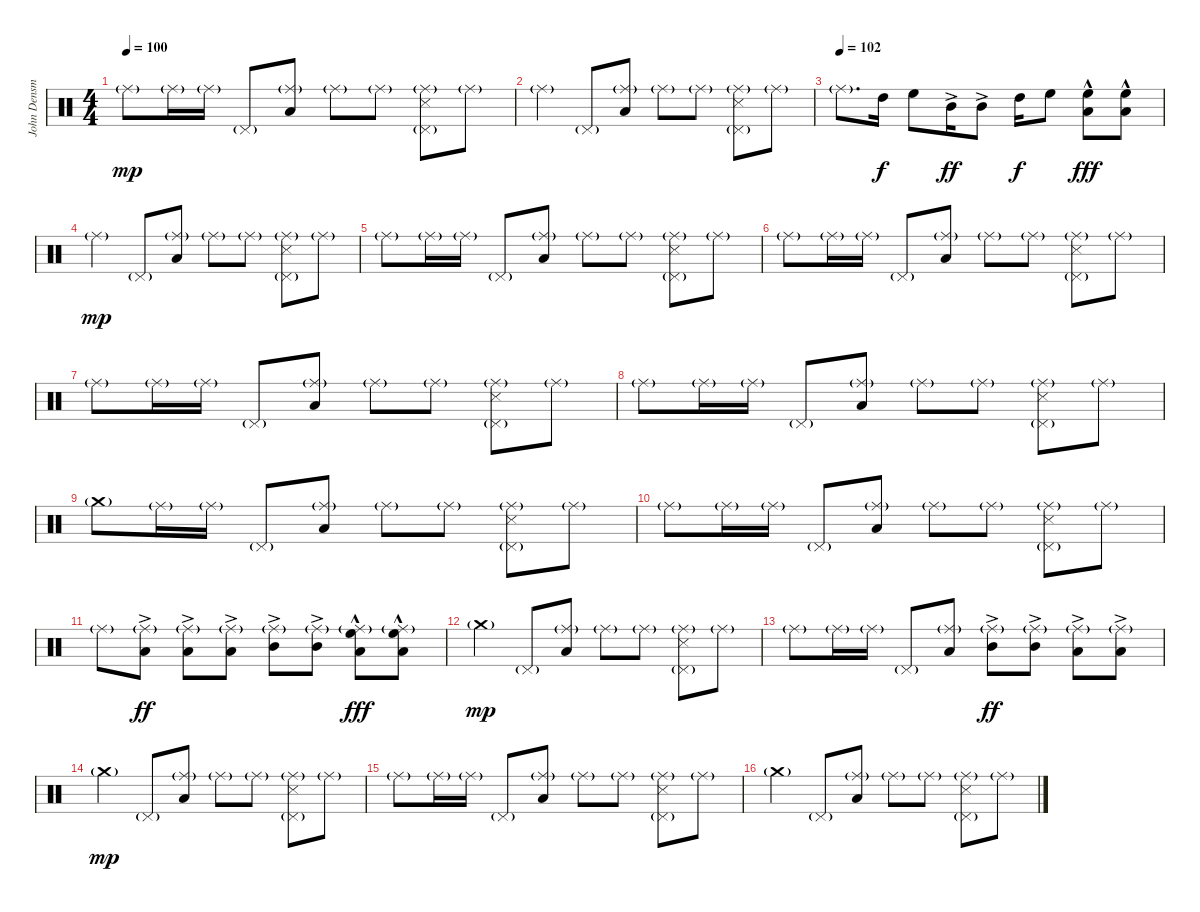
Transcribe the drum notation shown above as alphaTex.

\track ("John Densmore - Drums" "John Densm") {instrument percussion}
\staff {score}
\articulation defaults
\ts (4 4)
\tempo 100
\clef neutral
\ks c "Ride (middle)"{g}.8{dy mp} "Ride (middle)"{g}.16 "Ride (middle)"{g}.16 "Pedal Hi-Hat (hit)"{g}.8
("Ride (middle)"{g} "Low Tom (hit)").8 "Ride (middle)"{g}.8 "Ride (middle)"{g}.8 ("Ride (middle)"{g} "Pedal Hi-Hat (hit)"{g} "Snare (side stick) 3").8 "Ride (middle)"{g}.8 |
"Ride (middle)"{g}.4 "Pedal Hi-Hat (hit)"{g}.8 ("Ride (middle)"{g} "Low Tom (hit)").8 "Ride (middle)"{g}.8 "Ride (middle)"{g}.8 ("Ride (middle)"{g} "Pedal Hi-Hat (hit)"{g} "Snare (side stick) 3").8 "Ride (middle)"{g}.8 |
\tempo (102)
"Ride (middle)"{g}.8{d} "High Tom (hit)".16{dy f} "High Floor Tom (hit)".8 "Mid Tom (hit)"{ac}.16{dy ff} "Mid Tom (hit)"{ac}.8 "High Tom (hit)".16{dy f} "High Floor Tom (hit)".8 ("High Floor Tom (hit)"{hac} "Low Tom (hit)"{hac}).8{dy fff} ("High Floor Tom (hit)"{hac} "Low Tom (hit)"{hac}).8 |
"Ride (middle)"{g}.4{dy mp} "Pedal Hi-Hat (hit)"{g}.8 ("Ride (middle)"{g} "Low Tom (hit)").8 "Ride (middle)"{g}.8 "Ride (middle)"{g}.8 ("Ride (middle)"{g} "Pedal Hi-Hat (hit)"{g} "Snare (side stick) 3").8 "Ride (middle)"{g}.8 |
"Ride (middle)"{g}.8 "Ride (middle)"{g}.16 "Ride (middle)"{g}.16 "Pedal Hi-Hat (hit)"{g}.8 ("Ride (middle)"{g} "Low Tom (hit)").8 "Ride (middle)"{g}.8 "Ride (middle)"{g}.8 ("Ride (middle)"{g} "Pedal Hi-Hat (hit)"{g} "Snare (side stick) 3").8 "Ride (middle)"{g}.8 |
"Ride (middle)"{g}.8 "Ride (middle)"{g}.16 "Ride (middle)"{g}.16 "Pedal Hi-Hat (hit)"{g}.8 ("Ride (middle)"{g} "Low Tom (hit)").8 "Ride (middle)"{g}.8 "Ride (middle)"{g}.8 ("Ride (middle)"{g} "Pedal Hi-Hat (hit)"{g} "Snare (side stick) 3").8 "Ride (middle)"{g}.8 |
"Ride (middle)"{g}.8 "Ride (middle)"{g}.16 "Ride (middle)"{g}.16 "Pedal Hi-Hat (hit)"{g}.8 ("Ride (middle)"{g} "Low Tom (hit)").8 "Ride (middle)"{g}.8 "Ride (middle)"{g}.8 ("Ride (middle)"{g} "Pedal Hi-Hat (hit)"{g} "Snare (side stick) 3").8 "Ride (middle)"{g}.8 |
"Ride (middle)"{g}.8 "Ride (middle)"{g}.16 "Ride (middle)"{g}.16 "Pedal Hi-Hat (hit)"{g}.8 ("Ride (middle)"{g} "Low Tom (hit)").8 "Ride (middle)"{g}.8 "Ride (middle)"{g}.8 ("Ride (middle)"{g} "Pedal Hi-Hat (hit)"{g} "Snare (side stick) 3").8 "Ride (middle)"{g}.8 |
"Crash medium (hit)"{g}.8 "Ride (middle)"{g}.16 "Ride (middle)"{g}.16 "Pedal Hi-Hat (hit)"{g}.8 ("Ride (middle)"{g} "Low Tom (hit)").8 "Ride (middle)"{g}.8 "Ride (middle)"{g}.8 ("Ride (middle)"{g} "Pedal Hi-Hat (hit)"{g} "Snare (side stick) 3").8 "Ride (middle)"{g}.8 |
"Ride (middle)"{g}.8 "Ride (middle)"{g}.16 "Ride (middle)"{g}.16 "Pedal Hi-Hat (hit)"{g}.8 ("Ride (middle)"{g} "Low Tom (hit)").8 "Ride (middle)"{g}.8 "Ride (middle)"{g}.8 ("Ride (middle)"{g} "Pedal Hi-Hat (hit)"{g} "Snare (side stick) 3").8 "Ride (middle)"{g}.8 |
"Ride (middle)"{g}.8 ("Ride (middle)"{g} "Low Tom (hit)"{ac}).8{dy ff} ("Ride (middle)"{g} "Low Tom (hit)"{ac}).8 ("Ride (middle)"{g} "Low Tom (hit)"{ac}).8 ("Ride (middle)"{g} "Mid Tom (hit)"{ac}).8 ("Ride (middle)"{g} "Mid Tom (hit)"{ac}).8 ("Ride (middle)"{g} "High Floor Tom (hit)"{hac} "Low Tom (hit)"{hac}).8{dy fff} ("Ride (middle)"{g} "High Floor Tom (hit)"{hac} "Low Tom (hit)"{hac}).8 |
"Crash medium (hit)"{g}.4{dy mp} "Pedal Hi-Hat (hit)"{g}.8 ("Ride (middle)"{g} "Low Tom (hit)").8 "Ride (middle)"{g}.8 "Ride (middle)"{g}.8 ("Ride (middle)"{g} "Pedal Hi-Hat (hit)"{g} "Snare (side stick) 3").8 "Ride (middle)"{g}.8 |
"Ride (middle)"{g}.8 "Ride (middle)"{g}.16 "Ride (middle)"{g}.16 "Pedal Hi-Hat (hit)"{g}.8 ("Ride (middle)"{g} "Low Tom (hit)").8 ("Ride (middle)"{g} "Mid Tom (hit)"{ac}).8{dy ff} ("Ride (middle)"{g} "Mid Tom (hit)"{ac}).8 ("Ride (middle)"{g} "Low Tom (hit)"{ac}).8 ("Ride (middle)"{g} "Low Tom (hit)"{ac}).8 |
"Crash medium (hit)"{g}.4{dy mp} "Pedal Hi-Hat (hit)"{g}.8 ("Ride (middle)"{g} "Low Tom (hit)").8 "Ride (middle)"{g}.8 "Ride (middle)"{g}.8 ("Ride (middle)"{g} "Pedal Hi-Hat (hit)"{g} "Snare (side stick) 3").8 "Ride (middle)"{g}.8 |
"Ride (middle)"{g}.8 "Ride (middle)"{g}.16 "Ride (middle)"{g}.16 "Pedal Hi-Hat (hit)"{g}.8 ("Ride (middle)"{g} "Low Tom (hit)").8 "Ride (middle)"{g}.8 "Ride (middle)"{g}.8 ("Ride (middle)"{g} "Pedal Hi-Hat (hit)"{g} "Snare (side stick) 3").8 "Ride (middle)"{g}.8 |
"Crash medium (hit)"{g}.4 "Pedal Hi-Hat (hit)"{g}.8 ("Ride (middle)"{g} "Low Tom (hit)").8 "Ride (middle)"{g}.8 "Ride (middle)"{g}.8 ("Ride (middle)"{g} "Pedal Hi-Hat (hit)"{g} "Snare (side stick) 3").8 "Ride (middle)"{g}.8
